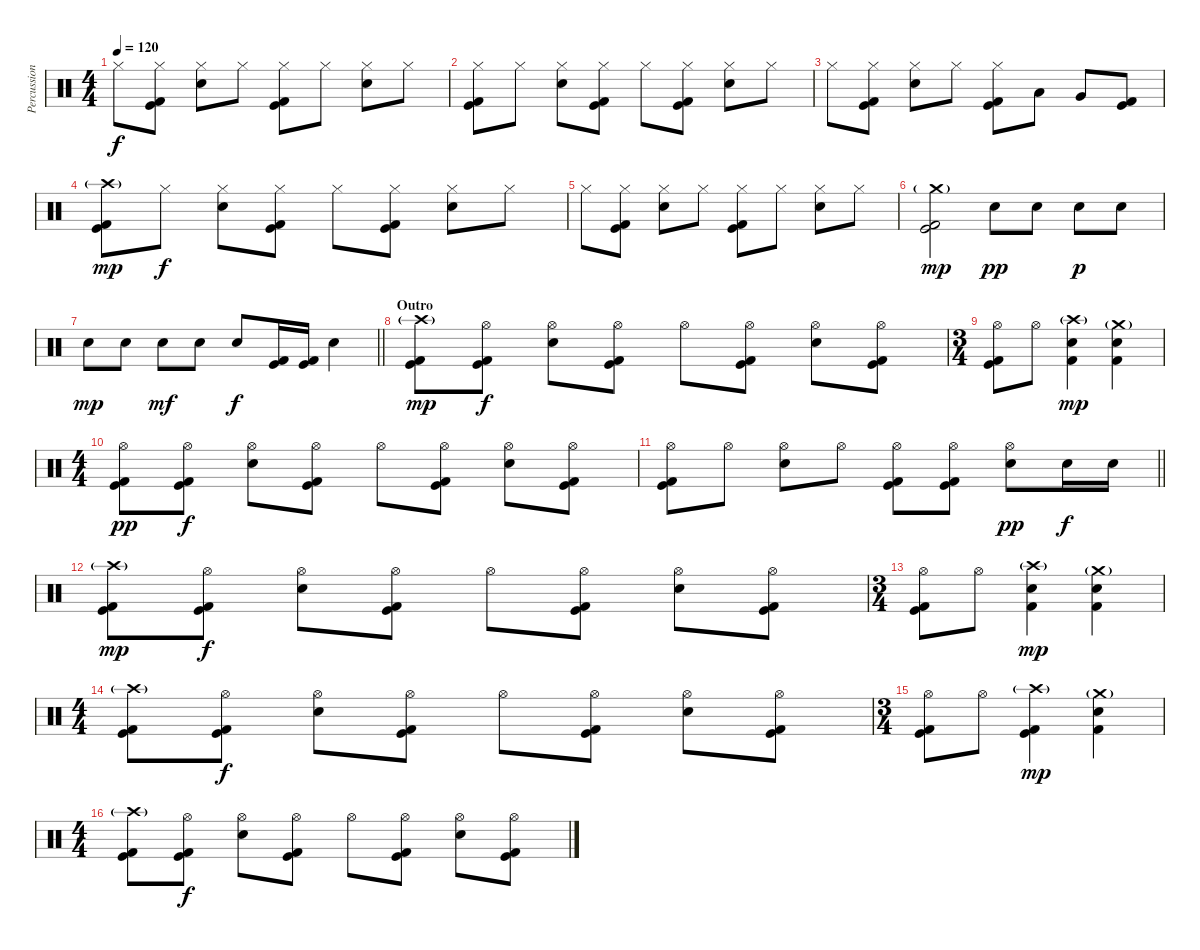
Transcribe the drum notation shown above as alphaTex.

\track ("Percussion" "Percussion") {instrument percussion}
\staff {score}
\articulation defaults
\ts (4 4)
\tempo 120
\clef neutral
\ks c "Hi-Hat (closed)".8{dy f}
("Hi-Hat (closed)" "Kick (hit)" "Kick (hit) 2").8 ("Hi-Hat (closed)" "Electric Snare (hit)").8 "Hi-Hat (closed)".8 ("Hi-Hat (closed)" "Kick (hit)" "Kick (hit) 2").8 "Hi-Hat (closed)".8 ("Hi-Hat (closed)" "Electric Snare (hit)").8 "Hi-Hat (closed)".8 |
("Hi-Hat (closed)" "Kick (hit)" "Kick (hit) 2").8 "Hi-Hat (closed)".8 ("Hi-Hat (closed)" "Electric Snare (hit)").8 ("Hi-Hat (closed)" "Kick (hit)" "Kick (hit) 2").8 "Hi-Hat (closed)".8 ("Hi-Hat (closed)" "Kick (hit)" "Kick (hit) 2").8 ("Hi-Hat (closed)" "Electric Snare (hit)").8 "Hi-Hat (closed)".8 |
"Hi-Hat (closed)".8 ("Hi-Hat (closed)" "Kick (hit)" "Kick (hit) 2").8 ("Hi-Hat (closed)" "Electric Snare (hit)").8 "Hi-Hat (closed)".8 ("Hi-Hat (closed)" "Kick (hit)" "Kick (hit) 2").8 "Low Tom (hit)".8 "Very Low Tom (hit)".8 ("Kick (hit)" "Kick (hit) 2").8 |
("Crash high (hit)"{g} "Kick (hit)" "Kick (hit) 2").8{dy mp} "Hi-Hat (closed)".8{dy f} ("Hi-Hat (closed)" "Electric Snare (hit)").8 ("Hi-Hat (closed)" "Kick (hit)" "Kick (hit) 2").8 "Hi-Hat (closed)".8 ("Hi-Hat (closed)" "Kick (hit)" "Kick (hit) 2").8 ("Hi-Hat (closed)" "Electric Snare (hit)").8 "Hi-Hat (closed)".8 |
"Hi-Hat (closed)".8 ("Hi-Hat (closed)" "Kick (hit)" "Kick (hit) 2").8 ("Hi-Hat (closed)" "Electric Snare (hit)").8 "Hi-Hat (closed)".8 ("Hi-Hat (closed)" "Kick (hit)" "Kick (hit) 2").8 "Hi-Hat (closed)".8 ("Hi-Hat (closed)" "Electric Snare (hit)").8 "Hi-Hat (closed)".8 |
("Crash medium (hit)"{g} "Kick (hit)" "Kick (hit) 2").2{dy mp} "Electric Snare (hit)".8{dy pp} "Electric Snare (hit)".8 "Electric Snare (hit)".8{dy p} "Electric Snare (hit)".8 |
\barLineRight lightlight "Electric Snare (hit)".8{dy mp} "Electric Snare (hit)".8 "Electric Snare (hit)".8{dy mf} "Electric Snare (hit)".8 "Electric Snare (hit)".8{dy f}
("Kick (hit)" "Kick (hit) 2").16 ("Kick (hit)" "Kick (hit) 2").16 "Electric Snare (hit)".4 |
\section ("" "Outro")
("Crash high (hit)"{g} "Kick (hit)" "Kick (hit) 2").8{dy mp} ("Hi-Hat (open)" "Kick (hit)" "Kick (hit) 2").8{dy f} ("Hi-Hat (open)" "Electric Snare (hit)").8 ("Hi-Hat (open)" "Kick (hit)" "Kick (hit) 2").8 "Hi-Hat (open)".8 ("Hi-Hat (open)" "Kick (hit)" "Kick (hit) 2").8 ("Hi-Hat (open)" "Electric Snare (hit)").8 ("Hi-Hat (open)" "Kick (hit)" "Kick (hit) 2").8 |
\ts (3 4)
("Hi-Hat (open)" "Kick (hit)" "Kick (hit) 2").8 "Hi-Hat (open)".8 ("Crash high (hit)"{g} "Electric Snare (hit)" "Kick (hit) 2").4{dy mp} ("Crash medium (hit)"{g} "Electric Snare (hit)" "Kick (hit) 2").4 |
\ts (4 4)
("Hi-Hat (open)" "Kick (hit)" "Kick (hit) 2").8{dy pp} ("Hi-Hat (open)" "Kick (hit)" "Kick (hit) 2").8{dy f} ("Hi-Hat (open)" "Electric Snare (hit)").8 ("Hi-Hat (open)" "Kick (hit)" "Kick (hit) 2").8 "Hi-Hat (open)".8 ("Hi-Hat (open)" "Kick (hit)" "Kick (hit) 2").8 ("Hi-Hat (open)" "Electric Snare (hit)").8 ("Hi-Hat (open)" "Kick (hit)" "Kick (hit) 2").8 |
\barLineRight lightlight
("Hi-Hat (open)" "Kick (hit)" "Kick (hit) 2").8 "Hi-Hat (open)".8 ("Hi-Hat (open)" "Electric Snare (hit)").8 "Hi-Hat (open)".8 ("Hi-Hat (open)" "Kick (hit)" "Kick (hit) 2").8 ("Hi-Hat (open)" "Kick (hit)" "Kick (hit) 2").8 ("Hi-Hat (open)" "Electric Snare (hit)").8{dy pp} "Electric Snare (hit)".16{dy f} "Electric Snare (hit)".16 |
\section ("" "")
("Crash high (hit)"{g} "Kick (hit)" "Kick (hit) 2").8{dy mp} ("Hi-Hat (open)" "Kick (hit)" "Kick (hit) 2").8{dy f} ("Hi-Hat (open)" "Electric Snare (hit)").8 ("Hi-Hat (open)" "Kick (hit)" "Kick (hit) 2").8 "Hi-Hat (open)".8 ("Hi-Hat (open)" "Kick (hit)" "Kick (hit) 2").8 ("Hi-Hat (open)" "Electric Snare (hit)").8 ("Hi-Hat (open)" "Kick (hit)" "Kick (hit) 2").8 |
\ts (3 4)
("Hi-Hat (open)" "Kick (hit)" "Kick (hit) 2").8 "Hi-Hat (open)".8 ("Crash high (hit)"{g} "Electric Snare (hit)" "Kick (hit) 2").4{dy mp} ("Crash medium (hit)"{g} "Electric Snare (hit)" "Kick (hit) 2").4 |
\ts (4 4)
("Crash high (hit)"{g} "Kick (hit)" "Kick (hit) 2").8 ("Hi-Hat (open)" "Kick (hit)" "Kick (hit) 2").8{dy f} ("Hi-Hat (open)" "Electric Snare (hit)").8 ("Hi-Hat (open)" "Kick (hit)" "Kick (hit) 2").8 "Hi-Hat (open)".8 ("Hi-Hat (open)" "Kick (hit)" "Kick (hit) 2").8 ("Hi-Hat (open)" "Electric Snare (hit)").8 ("Hi-Hat (open)" "Kick (hit)" "Kick (hit) 2").8 |
\ts (3 4)
("Hi-Hat (open)" "Kick (hit)" "Kick (hit) 2").8 "Hi-Hat (open)".8 ("Crash high (hit)"{g} "Kick (hit)" "Kick (hit) 2").4{dy mp} ("Crash medium (hit)"{g} "Electric Snare (hit)" "Kick (hit) 2").4 |
\ts (4 4)
("Crash high (hit)"{g} "Kick (hit)" "Kick (hit) 2").8 ("Hi-Hat (open)" "Kick (hit)" "Kick (hit) 2").8{dy f} ("Hi-Hat (open)" "Electric Snare (hit)").8 ("Hi-Hat (open)" "Kick (hit)" "Kick (hit) 2").8 "Hi-Hat (open)".8 ("Hi-Hat (open)" "Kick (hit)" "Kick (hit) 2").8 ("Hi-Hat (open)" "Electric Snare (hit)").8 ("Hi-Hat (open)" "Kick (hit)" "Kick (hit) 2").8
